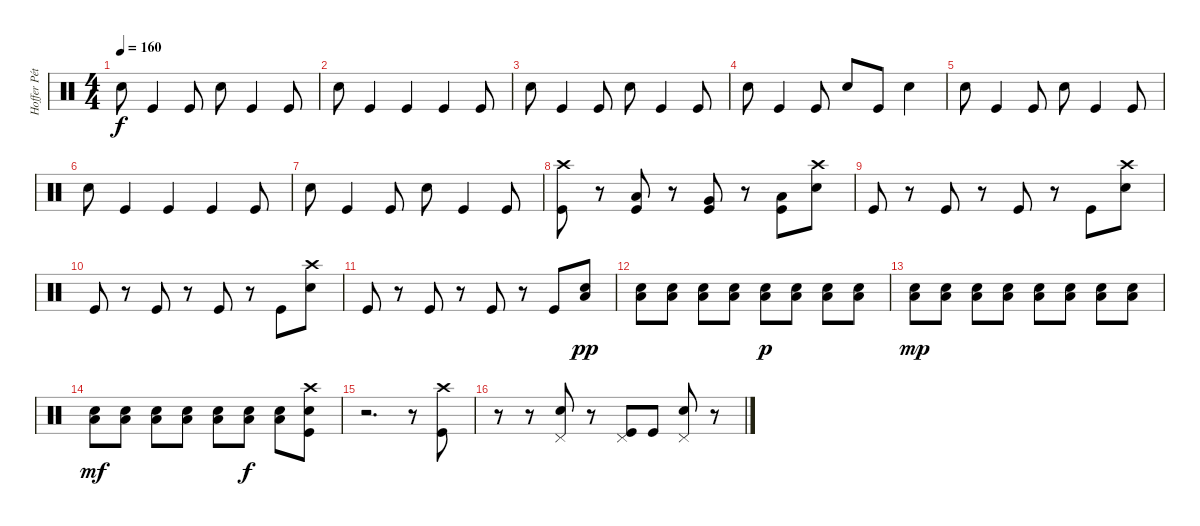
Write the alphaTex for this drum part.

\track ("Hoffer Péter" "Hoffer Pét") {instrument percussion}
\staff {score}
\articulation defaults
\ts (4 4)
\tempo 160
\clef neutral
\ks c "Electric Snare (hit)".8{dy f} "Kick (hit)".4 "Kick (hit)".8 "Electric Snare (hit)".8 "Kick (hit)".4 "Kick (hit)".8
|
"Electric Snare (hit)".8 "Kick (hit)".4 "Kick (hit)".4 "Kick (hit)".4 "Kick (hit)".8 |
"Electric Snare (hit)".8 "Kick (hit)".4 "Kick (hit)".8 "Electric Snare (hit)".8 "Kick (hit)".4 "Kick (hit)".8 |
"Electric Snare (hit)".8 "Kick (hit)".4 "Kick (hit)".8 "Electric Snare (hit)".8 "Kick (hit)".8 "Electric Snare (hit)".4 |
"Electric Snare (hit)".8 "Kick (hit)".4 "Kick (hit)".8 "Electric Snare (hit)".8 "Kick (hit)".4 "Kick (hit)".8 |
"Electric Snare (hit)".8 "Kick (hit)".4 "Kick (hit)".4 "Kick (hit)".4 "Kick (hit)".8 |
"Electric Snare (hit)".8 "Kick (hit)".4 "Kick (hit)".8 "Electric Snare (hit)".8 "Kick (hit)".4 "Kick (hit)".8 |
("Crash high (hit)" "Kick (hit)").8 r.8 ("Low Tom (hit)" "Kick (hit)").8 r.8 ("Very Low Tom (hit)" "Kick (hit)").8 r.8 ("Low Floor Tom (hit)" "Kick (hit)").8 ("Crash high (hit)" "Electric Snare (hit)").8 |
"Kick (hit)".8 r.8 "Kick (hit)".8 r.8 "Kick (hit)".8 r.8 "Kick (hit)".8 ("Crash high (hit)" "Electric Snare (hit)").8 |
"Kick (hit)".8 r.8 "Kick (hit)".8 r.8 "Kick (hit)".8 r.8 "Kick (hit)".8 ("Crash high (hit)" "Electric Snare (hit)").8 |
"Kick (hit)".8 r.8 "Kick (hit)".8 r.8 "Kick (hit)".8 r.8 "Kick (hit)".8 ("Low Floor Tom (hit)" "Electric Snare (hit)").8{dy pp} |
("Low Floor Tom (hit)" "Electric Snare (hit)").8 ("Low Floor Tom (hit)" "Electric Snare (hit)").8 ("Low Floor Tom (hit)" "Electric Snare (hit)").8 ("Low Floor Tom (hit)" "Electric Snare (hit)").8 ("Low Floor Tom (hit)" "Electric Snare (hit)").8{dy p} ("Low Floor Tom (hit)" "Electric Snare (hit)").8 ("Low Floor Tom (hit)" "Electric Snare (hit)").8 ("Low Floor Tom (hit)" "Electric Snare (hit)").8 |
("Low Floor Tom (hit)" "Electric Snare (hit)").8{dy mp} ("Low Floor Tom (hit)" "Electric Snare (hit)").8 ("Low Floor Tom (hit)" "Electric Snare (hit)").8 ("Low Floor Tom (hit)" "Electric Snare (hit)").8 ("Low Floor Tom (hit)" "Electric Snare (hit)").8 ("Low Floor Tom (hit)" "Electric Snare (hit)").8 ("Low Floor Tom (hit)" "Electric Snare (hit)").8 ("Low Floor Tom (hit)" "Electric Snare (hit)").8 |
("Low Floor Tom (hit)" "Electric Snare (hit)").8{dy mf} ("Low Floor Tom (hit)" "Electric Snare (hit)").8 ("Low Floor Tom (hit)" "Electric Snare (hit)").8 ("Low Floor Tom (hit)" "Electric Snare (hit)").8 ("Low Floor Tom (hit)" "Electric Snare (hit)").8 ("Low Floor Tom (hit)" "Electric Snare (hit)").8{dy f} ("Low Floor Tom (hit)" "Electric Snare (hit)").8 ("Crash high (hit)" "Electric Snare (hit)" "Kick (hit)").8 |
r.2{d} r.8 ("Crash high (hit)" "Kick (hit)").8 |
r.8 r.8 ("Pedal Hi-Hat (hit)" "Electric Snare (hit)").8 r.8 ("Pedal Hi-Hat (hit)" "Kick (hit)").8 "Kick (hit)".8 ("Pedal Hi-Hat (hit)" "Electric Snare (hit)").8 r.8
